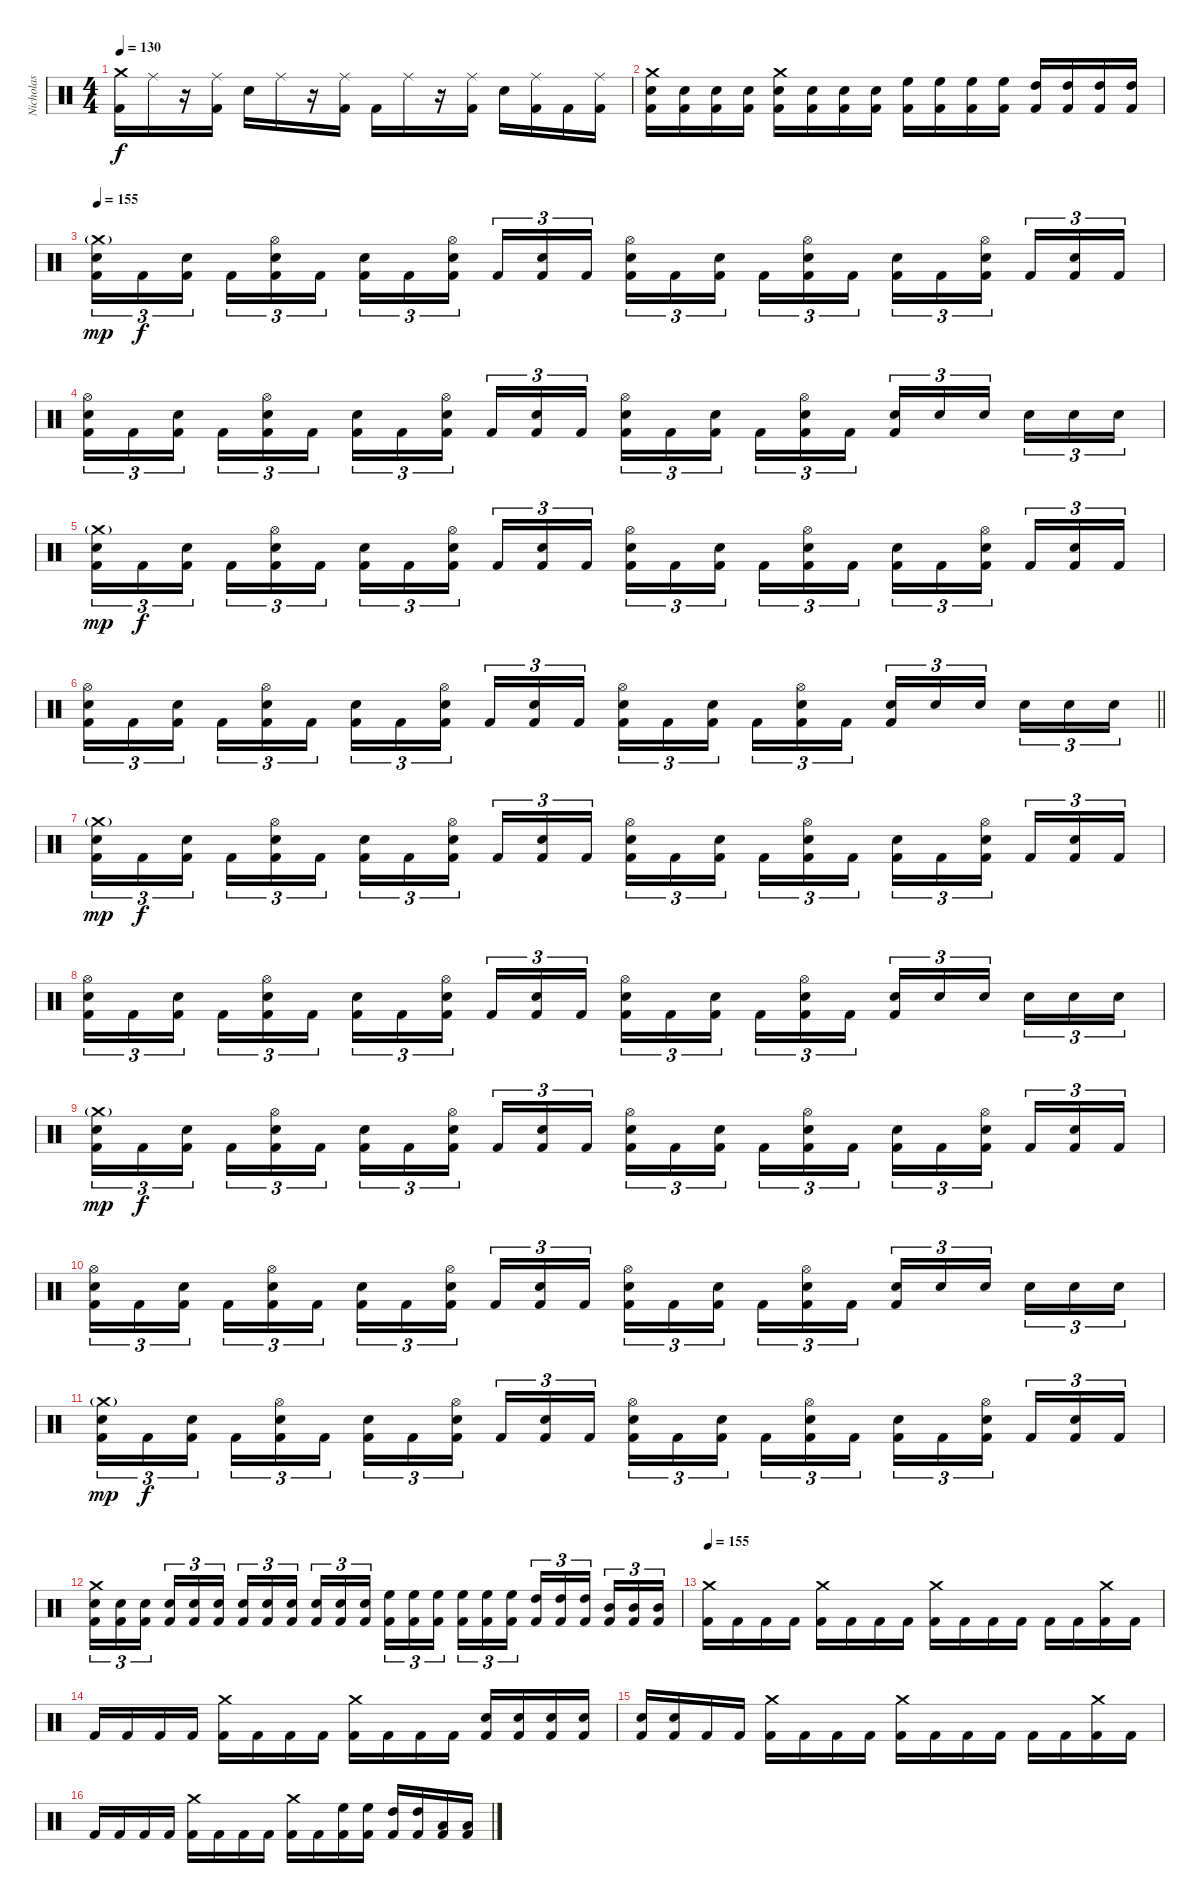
\track ("Nicholas" "Nicholas") {instrument percussion}
\staff {score}
\articulation defaults
\ts (4 4)
\tempo 130
\clef neutral
\ks c
("Crash medium (hit)" "Kick (hit) 2").16{dy f} "Ride (middle)".16 r.16 ("Ride (middle)" "Kick (hit) 2").16 "Snare (hit) 2".16 "Ride (middle)".16 r.16 ("Ride (middle)" "Kick (hit) 2").16 "Kick (hit) 2".16 "Ride (middle)".16 r.16 ("Ride (middle)" "Kick (hit) 2").16 "Snare (hit) 2".16 ("Ride (middle)" "Kick (hit) 2").16 "Kick (hit) 2".16 ("Ride (middle)" "Kick (hit) 2").16 |
("Crash medium (hit)" "Snare (hit) 2" "Kick (hit) 2").16 ("Snare (hit) 2" "Kick (hit) 2").16 ("Snare (hit) 2" "Kick (hit) 2").16 ("Snare (hit) 2" "Kick (hit) 2").16 ("Crash medium (hit)" "Snare (hit) 2" "Kick (hit) 2").16 ("Snare (hit) 2" "Kick (hit) 2").16 ("Snare (hit) 2" "Kick (hit) 2").16 ("Snare (hit) 2" "Kick (hit) 2").16 ("High Floor Tom (hit)" "Kick (hit) 2").16 ("High Floor Tom (hit)" "Kick (hit) 2").16 ("High Floor Tom (hit)" "Kick (hit) 2").16 ("High Floor Tom (hit)" "Kick (hit) 2").16 ("High Tom (hit)" "Kick (hit) 2").16 ("High Tom (hit)" "Kick (hit) 2").16 ("High Tom (hit)" "Kick (hit) 2").16 ("High Tom (hit)" "Kick (hit) 2").16 |
\tempo 155
("Crash medium (hit)"{g} "Snare (hit) 2" "Kick (hit) 2").16{tu (3 2) dy mp} "Kick (hit) 2".16{tu (3 2) dy f} ("Snare (hit) 2" "Kick (hit) 2").16{tu (3 2) beam splitsecondary} "Kick (hit) 2".16{tu (3 2)} ("Hi-Hat (open)" "Snare (hit) 2" "Kick (hit) 2").16{tu (3 2)} "Kick (hit) 2".16{tu (3 2)} ("Snare (hit) 2" "Kick (hit) 2").16{tu (3 2)} "Kick (hit) 2".16{tu (3 2)} ("Hi-Hat (open)" "Snare (hit) 2" "Kick (hit) 2").16{tu (3 2) beam splitsecondary} "Kick (hit) 2".16{tu (3 2)} ("Snare (hit) 2" "Kick (hit) 2").16{tu (3 2)} "Kick (hit) 2".16{tu (3 2)} ("Hi-Hat (open)" "Snare (hit) 2" "Kick (hit) 2").16{tu (3 2)} "Kick (hit) 2".16{tu (3 2)} ("Snare (hit) 2" "Kick (hit) 2").16{tu (3 2) beam splitsecondary} "Kick (hit) 2".16{tu (3 2)} ("Hi-Hat (open)" "Snare (hit) 2" "Kick (hit) 2").16{tu (3 2)} "Kick (hit) 2".16{tu (3 2)} ("Snare (hit) 2" "Kick (hit) 2").16{tu (3 2)} "Kick (hit) 2".16{tu (3 2)} ("Hi-Hat (open)" "Snare (hit) 2" "Kick (hit) 2").16{tu (3 2) beam splitsecondary} "Kick (hit) 2".16{tu (3 2)} ("Snare (hit) 2" "Kick (hit) 2").16{tu (3 2)} "Kick (hit) 2".16{tu (3 2)} |
("Hi-Hat (open)" "Snare (hit) 2" "Kick (hit) 2").16{tu (3 2)} "Kick (hit) 2".16{tu (3 2)} ("Snare (hit) 2" "Kick (hit) 2").16{tu (3 2) beam splitsecondary} "Kick (hit) 2".16{tu (3 2)} ("Hi-Hat (open)" "Snare (hit) 2" "Kick (hit) 2").16{tu (3 2)} "Kick (hit) 2".16{tu (3 2)} ("Snare (hit) 2" "Kick (hit) 2").16{tu (3 2)} "Kick (hit) 2".16{tu (3 2)} ("Hi-Hat (open)" "Snare (hit) 2" "Kick (hit) 2").16{tu (3 2) beam splitsecondary} "Kick (hit) 2".16{tu (3 2)} ("Snare (hit) 2" "Kick (hit) 2").16{tu (3 2)} "Kick (hit) 2".16{tu (3 2)} ("Hi-Hat (open)" "Snare (hit) 2" "Kick (hit) 2").16{tu (3 2)} "Kick (hit) 2".16{tu (3 2)} ("Snare (hit) 2" "Kick (hit) 2").16{tu (3 2) beam splitsecondary} "Kick (hit) 2".16{tu (3 2)} ("Hi-Hat (open)" "Snare (hit) 2" "Kick (hit) 2").16{tu (3 2)} "Kick (hit) 2".16{tu (3 2)} ("Snare (hit) 2" "Kick (hit) 2").16{tu (3 2)} "Snare (hit) 2".16{tu (3 2)} "Snare (hit) 2".16{tu (3 2) beam splitsecondary} "Snare (hit) 2".16{tu (3 2)} "Snare (hit) 2".16{tu (3 2)} "Snare (hit) 2".16{tu (3 2)} |
("Crash medium (hit)"{g} "Snare (hit) 2" "Kick (hit) 2").16{tu (3 2) dy mp} "Kick (hit) 2".16{tu (3 2) dy f} ("Snare (hit) 2" "Kick (hit) 2").16{tu (3 2) beam splitsecondary} "Kick (hit) 2".16{tu (3 2)} ("Hi-Hat (open)" "Snare (hit) 2" "Kick (hit) 2").16{tu (3 2)} "Kick (hit) 2".16{tu (3 2)} ("Snare (hit) 2" "Kick (hit) 2").16{tu (3 2)} "Kick (hit) 2".16{tu (3 2)} ("Hi-Hat (open)" "Snare (hit) 2" "Kick (hit) 2").16{tu (3 2) beam splitsecondary} "Kick (hit) 2".16{tu (3 2)} ("Snare (hit) 2" "Kick (hit) 2").16{tu (3 2)} "Kick (hit) 2".16{tu (3 2)} ("Hi-Hat (open)" "Snare (hit) 2" "Kick (hit) 2").16{tu (3 2)} "Kick (hit) 2".16{tu (3 2)} ("Snare (hit) 2" "Kick (hit) 2").16{tu (3 2) beam splitsecondary} "Kick (hit) 2".16{tu (3 2)} ("Hi-Hat (open)" "Snare (hit) 2" "Kick (hit) 2").16{tu (3 2)} "Kick (hit) 2".16{tu (3 2)} ("Snare (hit) 2" "Kick (hit) 2").16{tu (3 2)} "Kick (hit) 2".16{tu (3 2)} ("Hi-Hat (open)" "Snare (hit) 2" "Kick (hit) 2").16{tu (3 2) beam splitsecondary} "Kick (hit) 2".16{tu (3 2)} ("Snare (hit) 2" "Kick (hit) 2").16{tu (3 2)} "Kick (hit) 2".16{tu (3 2)} |
\barLineRight lightlight
("Hi-Hat (open)" "Snare (hit) 2" "Kick (hit) 2").16{tu (3 2)} "Kick (hit) 2".16{tu (3 2)} ("Snare (hit) 2" "Kick (hit) 2").16{tu (3 2) beam splitsecondary} "Kick (hit) 2".16{tu (3 2)} ("Hi-Hat (open)" "Snare (hit) 2" "Kick (hit) 2").16{tu (3 2)} "Kick (hit) 2".16{tu (3 2)} ("Snare (hit) 2" "Kick (hit) 2").16{tu (3 2)} "Kick (hit) 2".16{tu (3 2)} ("Hi-Hat (open)" "Snare (hit) 2" "Kick (hit) 2").16{tu (3 2) beam splitsecondary} "Kick (hit) 2".16{tu (3 2)} ("Snare (hit) 2" "Kick (hit) 2").16{tu (3 2)} "Kick (hit) 2".16{tu (3 2)} ("Hi-Hat (open)" "Snare (hit) 2" "Kick (hit) 2").16{tu (3 2)} "Kick (hit) 2".16{tu (3 2)} ("Snare (hit) 2" "Kick (hit) 2").16{tu (3 2) beam splitsecondary} "Kick (hit) 2".16{tu (3 2)} ("Hi-Hat (open)" "Snare (hit) 2" "Kick (hit) 2").16{tu (3 2)} "Kick (hit) 2".16{tu (3 2)} ("Snare (hit) 2" "Kick (hit) 2").16{tu (3 2)} "Snare (hit) 2".16{tu (3 2)} "Snare (hit) 2".16{tu (3 2) beam splitsecondary} "Snare (hit) 2".16{tu (3 2)} "Snare (hit) 2".16{tu (3 2)} "Snare (hit) 2".16{tu (3 2)} |
\section ("" "")
("Crash medium (hit)"{g} "Snare (hit) 2" "Kick (hit) 2").16{tu (3 2) dy mp} "Kick (hit) 2".16{tu (3 2) dy f} ("Snare (hit) 2" "Kick (hit) 2").16{tu (3 2) beam splitsecondary} "Kick (hit) 2".16{tu (3 2)} ("Hi-Hat (open)" "Snare (hit) 2" "Kick (hit) 2").16{tu (3 2)} "Kick (hit) 2".16{tu (3 2)} ("Snare (hit) 2" "Kick (hit) 2").16{tu (3 2)} "Kick (hit) 2".16{tu (3 2)} ("Hi-Hat (open)" "Snare (hit) 2" "Kick (hit) 2").16{tu (3 2) beam splitsecondary} "Kick (hit) 2".16{tu (3 2)} ("Snare (hit) 2" "Kick (hit) 2").16{tu (3 2)} "Kick (hit) 2".16{tu (3 2)} ("Hi-Hat (open)" "Snare (hit) 2" "Kick (hit) 2").16{tu (3 2)} "Kick (hit) 2".16{tu (3 2)} ("Snare (hit) 2" "Kick (hit) 2").16{tu (3 2) beam splitsecondary} "Kick (hit) 2".16{tu (3 2)} ("Hi-Hat (open)" "Snare (hit) 2" "Kick (hit) 2").16{tu (3 2)} "Kick (hit) 2".16{tu (3 2)} ("Snare (hit) 2" "Kick (hit) 2").16{tu (3 2)} "Kick (hit) 2".16{tu (3 2)} ("Hi-Hat (open)" "Snare (hit) 2" "Kick (hit) 2").16{tu (3 2) beam splitsecondary} "Kick (hit) 2".16{tu (3 2)} ("Snare (hit) 2" "Kick (hit) 2").16{tu (3 2)} "Kick (hit) 2".16{tu (3 2)} |
("Hi-Hat (open)" "Snare (hit) 2" "Kick (hit) 2").16{tu (3 2)} "Kick (hit) 2".16{tu (3 2)} ("Snare (hit) 2" "Kick (hit) 2").16{tu (3 2) beam splitsecondary} "Kick (hit) 2".16{tu (3 2)} ("Hi-Hat (open)" "Snare (hit) 2" "Kick (hit) 2").16{tu (3 2)} "Kick (hit) 2".16{tu (3 2)} ("Snare (hit) 2" "Kick (hit) 2").16{tu (3 2)} "Kick (hit) 2".16{tu (3 2)} ("Hi-Hat (open)" "Snare (hit) 2" "Kick (hit) 2").16{tu (3 2) beam splitsecondary} "Kick (hit) 2".16{tu (3 2)} ("Snare (hit) 2" "Kick (hit) 2").16{tu (3 2)} "Kick (hit) 2".16{tu (3 2)} ("Hi-Hat (open)" "Snare (hit) 2" "Kick (hit) 2").16{tu (3 2)} "Kick (hit) 2".16{tu (3 2)} ("Snare (hit) 2" "Kick (hit) 2").16{tu (3 2) beam splitsecondary} "Kick (hit) 2".16{tu (3 2)} ("Hi-Hat (open)" "Snare (hit) 2" "Kick (hit) 2").16{tu (3 2)} "Kick (hit) 2".16{tu (3 2)} ("Snare (hit) 2" "Kick (hit) 2").16{tu (3 2)} "Snare (hit) 2".16{tu (3 2)} "Snare (hit) 2".16{tu (3 2) beam splitsecondary} "Snare (hit) 2".16{tu (3 2)} "Snare (hit) 2".16{tu (3 2)} "Snare (hit) 2".16{tu (3 2)} |
("Crash medium (hit)"{g} "Snare (hit) 2" "Kick (hit) 2").16{tu (3 2) dy mp} "Kick (hit) 2".16{tu (3 2) dy f} ("Snare (hit) 2" "Kick (hit) 2").16{tu (3 2) beam splitsecondary} "Kick (hit) 2".16{tu (3 2)} ("Hi-Hat (open)" "Snare (hit) 2" "Kick (hit) 2").16{tu (3 2)} "Kick (hit) 2".16{tu (3 2)} ("Snare (hit) 2" "Kick (hit) 2").16{tu (3 2)} "Kick (hit) 2".16{tu (3 2)} ("Hi-Hat (open)" "Snare (hit) 2" "Kick (hit) 2").16{tu (3 2) beam splitsecondary} "Kick (hit) 2".16{tu (3 2)} ("Snare (hit) 2" "Kick (hit) 2").16{tu (3 2)} "Kick (hit) 2".16{tu (3 2)} ("Hi-Hat (open)" "Snare (hit) 2" "Kick (hit) 2").16{tu (3 2)} "Kick (hit) 2".16{tu (3 2)} ("Snare (hit) 2" "Kick (hit) 2").16{tu (3 2) beam splitsecondary} "Kick (hit) 2".16{tu (3 2)} ("Hi-Hat (open)" "Snare (hit) 2" "Kick (hit) 2").16{tu (3 2)} "Kick (hit) 2".16{tu (3 2)} ("Snare (hit) 2" "Kick (hit) 2").16{tu (3 2)} "Kick (hit) 2".16{tu (3 2)} ("Hi-Hat (open)" "Snare (hit) 2" "Kick (hit) 2").16{tu (3 2) beam splitsecondary} "Kick (hit) 2".16{tu (3 2)} ("Snare (hit) 2" "Kick (hit) 2").16{tu (3 2)} "Kick (hit) 2".16{tu (3 2)} |
("Hi-Hat (open)" "Snare (hit) 2" "Kick (hit) 2").16{tu (3 2)} "Kick (hit) 2".16{tu (3 2)} ("Snare (hit) 2" "Kick (hit) 2").16{tu (3 2) beam splitsecondary} "Kick (hit) 2".16{tu (3 2)} ("Hi-Hat (open)" "Snare (hit) 2" "Kick (hit) 2").16{tu (3 2)} "Kick (hit) 2".16{tu (3 2)} ("Snare (hit) 2" "Kick (hit) 2").16{tu (3 2)} "Kick (hit) 2".16{tu (3 2)} ("Hi-Hat (open)" "Snare (hit) 2" "Kick (hit) 2").16{tu (3 2) beam splitsecondary} "Kick (hit) 2".16{tu (3 2)} ("Snare (hit) 2" "Kick (hit) 2").16{tu (3 2)} "Kick (hit) 2".16{tu (3 2)} ("Hi-Hat (open)" "Snare (hit) 2" "Kick (hit) 2").16{tu (3 2)} "Kick (hit) 2".16{tu (3 2)} ("Snare (hit) 2" "Kick (hit) 2").16{tu (3 2) beam splitsecondary} "Kick (hit) 2".16{tu (3 2)} ("Hi-Hat (open)" "Snare (hit) 2" "Kick (hit) 2").16{tu (3 2)} "Kick (hit) 2".16{tu (3 2)} ("Snare (hit) 2" "Kick (hit) 2").16{tu (3 2)} "Snare (hit) 2".16{tu (3 2)} "Snare (hit) 2".16{tu (3 2) beam splitsecondary} "Snare (hit) 2".16{tu (3 2)} "Snare (hit) 2".16{tu (3 2)} "Snare (hit) 2".16{tu (3 2)} |
("Crash medium (hit)"{g} "Snare (hit) 2" "Kick (hit) 2").16{tu (3 2) dy mp} "Kick (hit) 2".16{tu (3 2) dy f} ("Snare (hit) 2" "Kick (hit) 2").16{tu (3 2) beam splitsecondary} "Kick (hit) 2".16{tu (3 2)} ("Hi-Hat (open)" "Snare (hit) 2" "Kick (hit) 2").16{tu (3 2)} "Kick (hit) 2".16{tu (3 2)} ("Snare (hit) 2" "Kick (hit) 2").16{tu (3 2)} "Kick (hit) 2".16{tu (3 2)} ("Hi-Hat (open)" "Snare (hit) 2" "Kick (hit) 2").16{tu (3 2) beam splitsecondary} "Kick (hit) 2".16{tu (3 2)} ("Snare (hit) 2" "Kick (hit) 2").16{tu (3 2)} "Kick (hit) 2".16{tu (3 2)} ("Hi-Hat (open)" "Snare (hit) 2" "Kick (hit) 2").16{tu (3 2)} "Kick (hit) 2".16{tu (3 2)} ("Snare (hit) 2" "Kick (hit) 2").16{tu (3 2) beam splitsecondary} "Kick (hit) 2".16{tu (3 2)} ("Hi-Hat (open)" "Snare (hit) 2" "Kick (hit) 2").16{tu (3 2)} "Kick (hit) 2".16{tu (3 2)} ("Snare (hit) 2" "Kick (hit) 2").16{tu (3 2)} "Kick (hit) 2".16{tu (3 2)} ("Hi-Hat (open)" "Snare (hit) 2" "Kick (hit) 2").16{tu (3 2) beam splitsecondary} "Kick (hit) 2".16{tu (3 2)} ("Snare (hit) 2" "Kick (hit) 2").16{tu (3 2)} "Kick (hit) 2".16{tu (3 2)} |
("Crash medium (hit)" "Snare (hit) 2" "Kick (hit) 2").16{tu (3 2)} ("Snare (hit) 2" "Kick (hit) 2").16{tu (3 2)} ("Snare (hit) 2" "Kick (hit) 2").16{tu (3 2) beam splitsecondary} ("Snare (hit) 2" "Kick (hit) 2").16{tu (3 2)} ("Snare (hit) 2" "Kick (hit) 2").16{tu (3 2)} ("Snare (hit) 2" "Kick (hit) 2").16{tu (3 2)} ("Snare (hit) 2" "Kick (hit) 2").16{tu (3 2)} ("Snare (hit) 2" "Kick (hit) 2").16{tu (3 2)} ("Snare (hit) 2" "Kick (hit) 2").16{tu (3 2) beam splitsecondary} ("Snare (hit) 2" "Kick (hit) 2").16{tu (3 2)} ("Snare (hit) 2" "Kick (hit) 2").16{tu (3 2)} ("Snare (hit) 2" "Kick (hit) 2").16{tu (3 2)} ("High Floor Tom (hit)" "Kick (hit) 2").16{tu (3 2)} ("High Floor Tom (hit)" "Kick (hit) 2").16{tu (3 2)} ("High Floor Tom (hit)" "Kick (hit) 2").16{tu (3 2) beam splitsecondary} ("High Floor Tom (hit)" "Kick (hit) 2").16{tu (3 2)} ("High Floor Tom (hit)" "Kick (hit) 2").16{tu (3 2)} ("High Floor Tom (hit)" "Kick (hit) 2").16{tu (3 2)} ("High Tom (hit)" "Kick (hit) 2").16{tu (3 2)} ("High Tom (hit)" "Kick (hit) 2").16{tu (3 2)} ("High Tom (hit)" "Kick (hit) 2").16{tu (3 2) beam splitsecondary} ("Mid Tom (hit)" "Kick (hit) 2").16{tu (3 2)} ("Mid Tom (hit)" "Kick (hit) 2").16{tu (3 2)} ("Mid Tom (hit)" "Kick (hit) 2").16{tu (3 2)} |
\tempo 155
("Crash medium (hit)" "Kick (hit) 2").16 "Kick (hit) 2".16 "Kick (hit) 2".16 "Kick (hit) 2".16 ("Crash medium (hit)" "Kick (hit) 2").16 "Kick (hit) 2".16 "Kick (hit) 2".16 "Kick (hit) 2".16 ("Crash medium (hit)" "Kick (hit) 2").16 "Kick (hit) 2".16 "Kick (hit) 2".16 "Kick (hit) 2".16 "Kick (hit) 2".16 "Kick (hit) 2".16 ("Crash medium (hit)" "Kick (hit) 2").16 "Kick (hit) 2".16 |
"Kick (hit) 2".16 "Kick (hit) 2".16 "Kick (hit) 2".16 "Kick (hit) 2".16 ("Crash medium (hit)" "Kick (hit) 2").16 "Kick (hit) 2".16 "Kick (hit) 2".16 "Kick (hit) 2".16 ("Crash medium (hit)" "Kick (hit) 2").16 "Kick (hit) 2".16 "Kick (hit) 2".16 "Kick (hit) 2".16 ("Snare (hit) 2" "Kick (hit) 2").16 ("Snare (hit) 2" "Kick (hit) 2").16 ("Snare (hit) 2" "Kick (hit) 2").16 ("Snare (hit) 2" "Kick (hit) 2").16 |
("Snare (hit) 2" "Kick (hit) 2").16 ("Snare (hit) 2" "Kick (hit) 2").16 "Kick (hit) 2".16 "Kick (hit) 2".16 ("Crash medium (hit)" "Kick (hit) 2").16 "Kick (hit) 2".16 "Kick (hit) 2".16 "Kick (hit) 2".16 ("Crash medium (hit)" "Kick (hit) 2").16 "Kick (hit) 2".16 "Kick (hit) 2".16 "Kick (hit) 2".16 "Kick (hit) 2".16 "Kick (hit) 2".16 ("Crash medium (hit)" "Kick (hit) 2").16 "Kick (hit) 2".16 |
"Kick (hit) 2".16 "Kick (hit) 2".16 "Kick (hit) 2".16 "Kick (hit) 2".16 ("Crash medium (hit)" "Kick (hit) 2").16 "Kick (hit) 2".16 "Kick (hit) 2".16 "Kick (hit) 2".16 ("Crash medium (hit)" "Kick (hit) 2").16 "Kick (hit) 2".16 ("High Floor Tom (hit)" "Kick (hit) 2").16 ("High Floor Tom (hit)" "Kick (hit) 2").16 ("High Tom (hit)" "Kick (hit) 2").16 ("High Tom (hit)" "Kick (hit) 2").16 ("Low Tom (hit)" "Kick (hit) 2").16 ("Low Tom (hit)" "Kick (hit) 2").16
